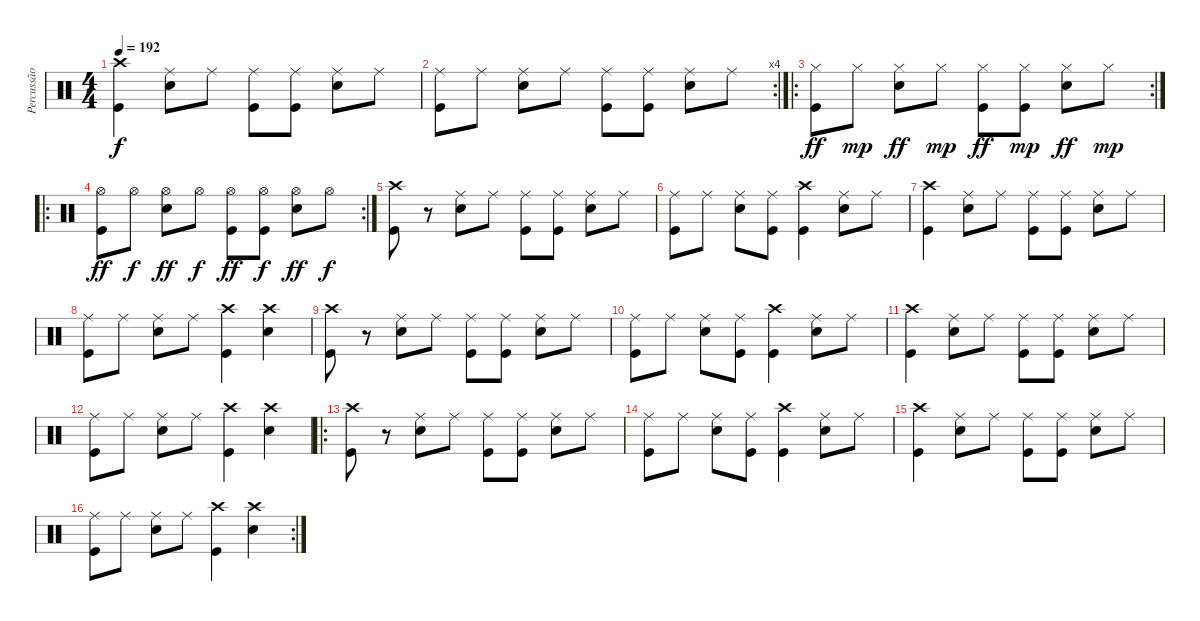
\track ("Percussão" "Percussão") {instrument percussion}
\staff {score}
\articulation defaults
\ts (4 4)
\tempo 192
\clef neutral
\ks c
("Crash high (hit)" "Kick (hit)").4{dy f} ("Ride (middle)" "Snare (hit) 2").8 "Ride (middle)".8 ("Ride (middle)" "Kick (hit)").8 ("Ride (middle)" "Kick (hit)").8 ("Ride (middle)" "Snare (hit) 2").8 "Ride (middle)".8 |
\rc 4
("Ride (middle)" "Kick (hit)").8 "Ride (middle)".8 ("Ride (middle)" "Snare (hit) 2").8 "Ride (middle)".8 ("Ride (middle)" "Kick (hit)").8 ("Ride (middle)" "Kick (hit)").8 ("Ride (middle)" "Snare (hit) 2").8 "Ride (middle)".8 |
\ro
\rc 2
("Hi-Hat (closed)" "Kick (hit)").8{dy ff} "Hi-Hat (closed)".8{dy mp} ("Hi-Hat (closed)" "Snare (hit) 2").8{dy ff} "Hi-Hat (closed)".8{dy mp} ("Hi-Hat (closed)" "Kick (hit)").8{dy ff} ("Hi-Hat (closed)" "Kick (hit)").8{dy mp} ("Hi-Hat (closed)" "Snare (hit) 2").8{dy ff} "Hi-Hat (closed)".8{dy mp} |
\ro
\rc 2
("Hi-Hat (open)" "Kick (hit)").8{dy ff} "Hi-Hat (open)".8{dy f} ("Hi-Hat (open)" "Snare (hit) 2").8{dy ff} "Hi-Hat (open)".8{dy f} ("Hi-Hat (open)" "Kick (hit)").8{dy ff} ("Hi-Hat (open)" "Kick (hit)").8{dy f} ("Hi-Hat (open)" "Snare (hit) 2").8{dy ff} "Hi-Hat (open)".8{dy f} |
("Crash high (hit)" "Kick (hit)").8 r.8 ("Ride (middle)" "Snare (hit) 2").8 "Ride (middle)".8 ("Ride (middle)" "Kick (hit)").8 ("Ride (middle)" "Kick (hit)").8 ("Ride (middle)" "Snare (hit) 2").8 "Ride (middle)".8 |
("Ride (middle)" "Kick (hit)").8 "Ride (middle)".8 ("Ride (middle)" "Snare (hit) 2").8 ("Ride (middle)" "Kick (hit)").8 ("Crash high (hit)" "Kick (hit)").4 ("Ride (middle)" "Snare (hit) 2").8 "Ride (middle)".8 |
("Crash high (hit)" "Kick (hit)").4 ("Ride (middle)" "Snare (hit) 2").8 "Ride (middle)".8 ("Ride (middle)" "Kick (hit)").8 ("Ride (middle)" "Kick (hit)").8 ("Ride (middle)" "Snare (hit) 2").8 "Ride (middle)".8 |
("Ride (middle)" "Kick (hit)").8 "Ride (middle)".8 ("Ride (middle)" "Snare (hit) 2").8 "Ride (middle)".8 ("Crash high (hit)" "Kick (hit)").4 ("Crash high (hit)" "Snare (hit) 2").4 |
("Crash high (hit)" "Kick (hit)").8 r.8 ("Ride (middle)" "Snare (hit) 2").8 "Ride (middle)".8 ("Ride (middle)" "Kick (hit)").8 ("Ride (middle)" "Kick (hit)").8 ("Ride (middle)" "Snare (hit) 2").8 "Ride (middle)".8 |
("Ride (middle)" "Kick (hit)").8 "Ride (middle)".8 ("Ride (middle)" "Snare (hit) 2").8 ("Ride (middle)" "Kick (hit)").8 ("Crash high (hit)" "Kick (hit)").4 ("Ride (middle)" "Snare (hit) 2").8 "Ride (middle)".8 |
("Crash high (hit)" "Kick (hit)").4 ("Ride (middle)" "Snare (hit) 2").8 "Ride (middle)".8 ("Ride (middle)" "Kick (hit)").8 ("Ride (middle)" "Kick (hit)").8 ("Ride (middle)" "Snare (hit) 2").8 "Ride (middle)".8 |
("Ride (middle)" "Kick (hit)").8 "Ride (middle)".8 ("Ride (middle)" "Snare (hit) 2").8 "Ride (middle)".8 ("Crash high (hit)" "Kick (hit)").4 ("Crash high (hit)" "Snare (hit) 2").4 |
\ro
("Crash high (hit)" "Kick (hit)").8 r.8 ("Ride (middle)" "Snare (hit) 2").8 "Ride (middle)".8 ("Ride (middle)" "Kick (hit)").8 ("Ride (middle)" "Kick (hit)").8 ("Ride (middle)" "Snare (hit) 2").8 "Ride (middle)".8 |
("Ride (middle)" "Kick (hit)").8 "Ride (middle)".8 ("Ride (middle)" "Snare (hit) 2").8 ("Ride (middle)" "Kick (hit)").8 ("Crash high (hit)" "Kick (hit)").4 ("Ride (middle)" "Snare (hit) 2").8 "Ride (middle)".8 |
("Crash high (hit)" "Kick (hit)").4 ("Ride (middle)" "Snare (hit) 2").8 "Ride (middle)".8 ("Ride (middle)" "Kick (hit)").8 ("Ride (middle)" "Kick (hit)").8 ("Ride (middle)" "Snare (hit) 2").8 "Ride (middle)".8 |
\rc 2
("Ride (middle)" "Kick (hit)").8 "Ride (middle)".8 ("Ride (middle)" "Snare (hit) 2").8 "Ride (middle)".8 ("Crash high (hit)" "Kick (hit)").4 ("Crash high (hit)" "Snare (hit) 2").4
